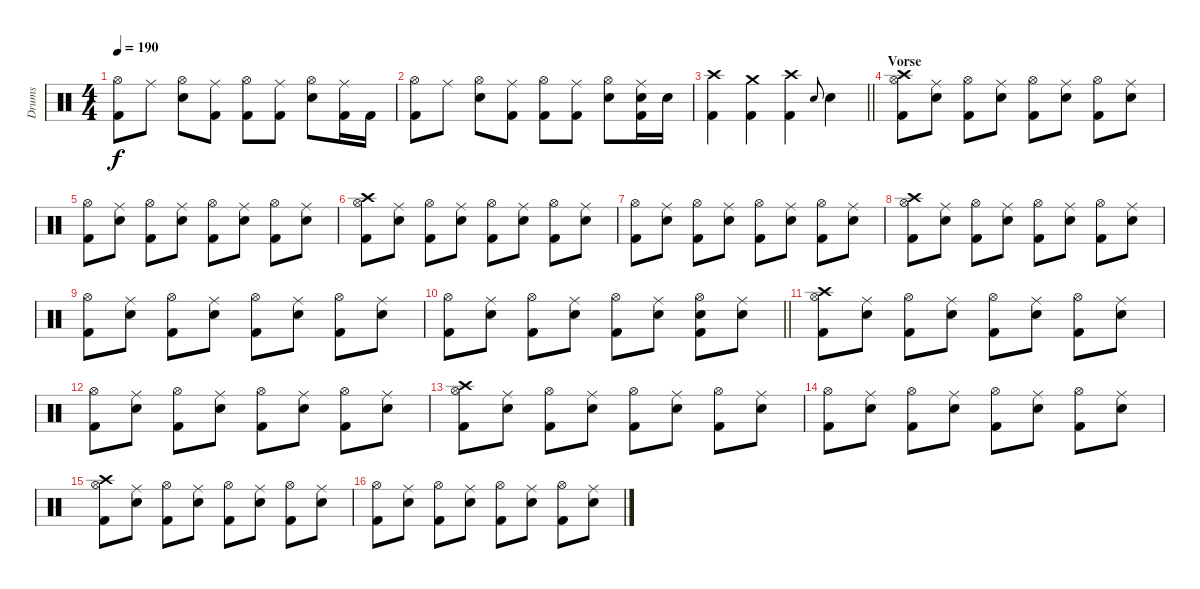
\track ("Drums" "Drums") {instrument percussion}
\staff {score}
\articulation defaults
\ts (4 4)
\tempo 190
\clef neutral
\ks c
("Hi-Hat (open)" "Kick (hit) 2").8{dy f} "Ride (middle)".8 ("Hi-Hat (open)" "Snare (hit) 2").8 ("Ride (middle)" "Kick (hit) 2").8 ("Hi-Hat (open)" "Kick (hit) 2").8 ("Ride (middle)" "Kick (hit) 2").8 ("Hi-Hat (open)" "Snare (hit) 2").8 ("Ride (middle)" "Kick (hit) 2").16 "Kick (hit) 2".16 |
("Hi-Hat (open)" "Kick (hit) 2").8 "Ride (middle)".8 ("Hi-Hat (open)" "Snare (hit) 2").8 ("Ride (middle)" "Kick (hit) 2").8 ("Hi-Hat (open)" "Kick (hit) 2").8 ("Ride (middle)" "Kick (hit) 2").8 ("Hi-Hat (open)" "Snare (hit) 2").8 ("Ride (middle)" "Snare (hit) 2" "Kick (hit) 2").16 "Snare (hit) 2".16 |
\barLineRight lightlight
("Crash high (hit)" "Kick (hit) 2").4 ("Crash medium (hit)" "Kick (hit) 2").4 ("Crash high (hit)" "Kick (hit) 2").4 "Snare (hit) 2".8{gr onbeat} "Snare (hit) 2".4 |
\section ("" "Vorse")
("Crash high (hit)" "Hi-Hat (open)" "Kick (hit) 2").8 ("Ride (middle)" "Snare (hit) 2").8 ("Hi-Hat (open)" "Kick (hit) 2").8 ("Ride (middle)" "Snare (hit) 2").8 ("Hi-Hat (open)" "Kick (hit) 2").8 ("Ride (middle)" "Snare (hit) 2").8 ("Hi-Hat (open)" "Kick (hit) 2").8 ("Ride (middle)" "Snare (hit) 2").8 |
("Hi-Hat (open)" "Kick (hit) 2").8 ("Ride (middle)" "Snare (hit) 2").8 ("Hi-Hat (open)" "Kick (hit) 2").8 ("Ride (middle)" "Snare (hit) 2").8 ("Hi-Hat (open)" "Kick (hit) 2").8 ("Ride (middle)" "Snare (hit) 2").8 ("Hi-Hat (open)" "Kick (hit) 2").8 ("Ride (middle)" "Snare (hit) 2").8 |
("Crash high (hit)" "Hi-Hat (open)" "Kick (hit) 2").8 ("Ride (middle)" "Snare (hit) 2").8 ("Hi-Hat (open)" "Kick (hit) 2").8 ("Ride (middle)" "Snare (hit) 2").8 ("Hi-Hat (open)" "Kick (hit) 2").8 ("Ride (middle)" "Snare (hit) 2").8 ("Hi-Hat (open)" "Kick (hit) 2").8 ("Ride (middle)" "Snare (hit) 2").8 |
("Hi-Hat (open)" "Kick (hit) 2").8 ("Ride (middle)" "Snare (hit) 2").8 ("Hi-Hat (open)" "Kick (hit) 2").8 ("Ride (middle)" "Snare (hit) 2").8 ("Hi-Hat (open)" "Kick (hit) 2").8 ("Ride (middle)" "Snare (hit) 2").8 ("Hi-Hat (open)" "Kick (hit) 2").8 ("Ride (middle)" "Snare (hit) 2").8 |
("Crash high (hit)" "Hi-Hat (open)" "Kick (hit) 2").8 ("Ride (middle)" "Snare (hit) 2").8 ("Hi-Hat (open)" "Kick (hit) 2").8 ("Ride (middle)" "Snare (hit) 2").8 ("Hi-Hat (open)" "Kick (hit) 2").8 ("Ride (middle)" "Snare (hit) 2").8 ("Hi-Hat (open)" "Kick (hit) 2").8 ("Ride (middle)" "Snare (hit) 2").8 |
("Hi-Hat (open)" "Kick (hit) 2").8 ("Ride (middle)" "Snare (hit) 2").8 ("Hi-Hat (open)" "Kick (hit) 2").8 ("Ride (middle)" "Snare (hit) 2").8 ("Hi-Hat (open)" "Kick (hit) 2").8 ("Ride (middle)" "Snare (hit) 2").8 ("Hi-Hat (open)" "Kick (hit) 2").8 ("Ride (middle)" "Snare (hit) 2").8 |
\barLineRight lightlight
("Hi-Hat (open)" "Kick (hit) 2").8 ("Ride (middle)" "Snare (hit) 2").8 ("Hi-Hat (open)" "Kick (hit) 2").8 ("Ride (middle)" "Snare (hit) 2").8 ("Hi-Hat (open)" "Kick (hit) 2").8 ("Ride (middle)" "Snare (hit) 2").8 ("Hi-Hat (open)" "Snare (hit) 2" "Kick (hit) 2").8 ("Ride (middle)" "Snare (hit) 2").8 |
("Crash high (hit)" "Hi-Hat (open)" "Kick (hit) 2").8 ("Ride (middle)" "Snare (hit) 2").8 ("Hi-Hat (open)" "Kick (hit) 2").8 ("Ride (middle)" "Snare (hit) 2").8 ("Hi-Hat (open)" "Kick (hit) 2").8 ("Ride (middle)" "Snare (hit) 2").8 ("Hi-Hat (open)" "Kick (hit) 2").8 ("Ride (middle)" "Snare (hit) 2").8 |
("Hi-Hat (open)" "Kick (hit) 2").8 ("Ride (middle)" "Snare (hit) 2").8 ("Hi-Hat (open)" "Kick (hit) 2").8 ("Ride (middle)" "Snare (hit) 2").8 ("Hi-Hat (open)" "Kick (hit) 2").8 ("Ride (middle)" "Snare (hit) 2").8 ("Hi-Hat (open)" "Kick (hit) 2").8 ("Ride (middle)" "Snare (hit) 2").8 |
("Crash high (hit)" "Hi-Hat (open)" "Kick (hit) 2").8 ("Ride (middle)" "Snare (hit) 2").8 ("Hi-Hat (open)" "Kick (hit) 2").8 ("Ride (middle)" "Snare (hit) 2").8 ("Hi-Hat (open)" "Kick (hit) 2").8 ("Ride (middle)" "Snare (hit) 2").8 ("Hi-Hat (open)" "Kick (hit) 2").8 ("Ride (middle)" "Snare (hit) 2").8 |
("Hi-Hat (open)" "Kick (hit) 2").8 ("Ride (middle)" "Snare (hit) 2").8 ("Hi-Hat (open)" "Kick (hit) 2").8 ("Ride (middle)" "Snare (hit) 2").8 ("Hi-Hat (open)" "Kick (hit) 2").8 ("Ride (middle)" "Snare (hit) 2").8 ("Hi-Hat (open)" "Kick (hit) 2").8 ("Ride (middle)" "Snare (hit) 2").8 |
("Crash high (hit)" "Hi-Hat (open)" "Kick (hit) 2").8 ("Ride (middle)" "Snare (hit) 2").8 ("Hi-Hat (open)" "Kick (hit) 2").8 ("Ride (middle)" "Snare (hit) 2").8 ("Hi-Hat (open)" "Kick (hit) 2").8 ("Ride (middle)" "Snare (hit) 2").8 ("Hi-Hat (open)" "Kick (hit) 2").8 ("Ride (middle)" "Snare (hit) 2").8 |
("Hi-Hat (open)" "Kick (hit) 2").8 ("Ride (middle)" "Snare (hit) 2").8 ("Hi-Hat (open)" "Kick (hit) 2").8 ("Ride (middle)" "Snare (hit) 2").8 ("Hi-Hat (open)" "Kick (hit) 2").8 ("Ride (middle)" "Snare (hit) 2").8 ("Hi-Hat (open)" "Kick (hit) 2").8 ("Ride (middle)" "Snare (hit) 2").8
